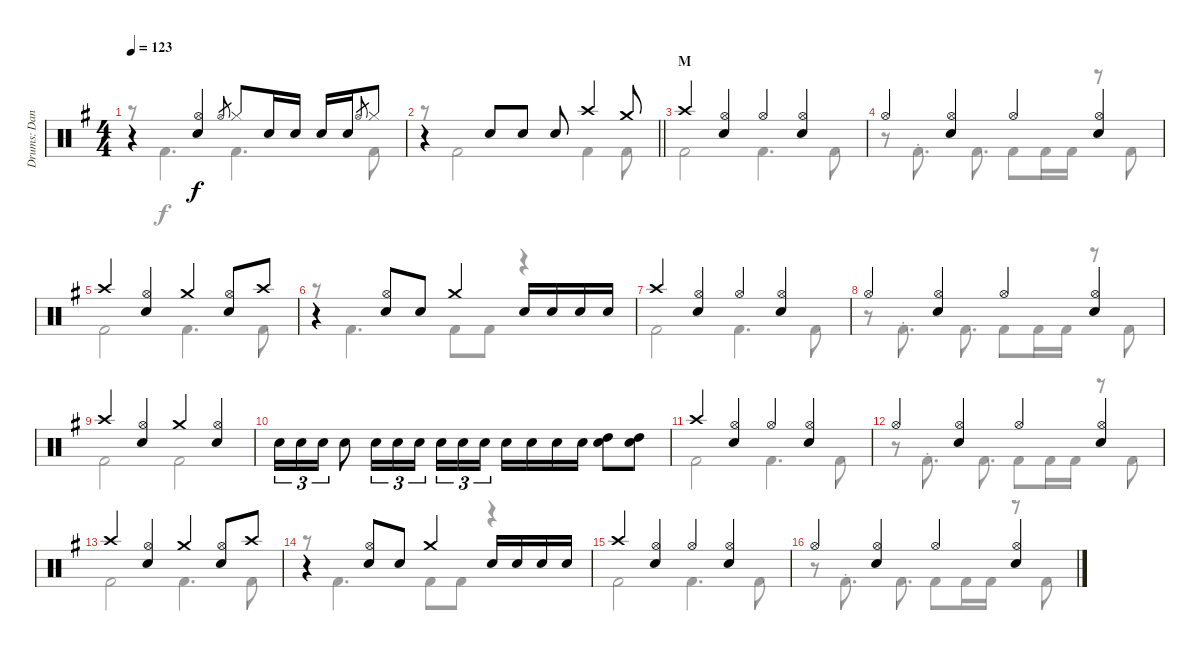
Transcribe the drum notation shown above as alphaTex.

\track ("Drums: Dana" "Drums: Dan") {instrument percussion}
\staff {score}
\articulation defaults
\voice
\ts (4 4)
\tempo 123
\clef neutral
\ks g
r.4{dy f} ("Hi-Hat (open)" "Snare (hit) 2").4 "Hi-Hat (open)".8{gr} "Hi-Hat (closed)".8 "Snare (hit) 2".16 "Snare (hit) 2".16 "Snare (hit) 2".16 "Snare (hit) 2".16 "Hi-Hat (open)".8{gr} "Hi-Hat (closed)".8 |
\barLineRight lightlight
r.4 "Snare (hit) 2".8 "Snare (hit) 2".8 "Snare (hit) 2".8 "Crash high (hit)".4 "Crash medium (hit)".8 |
\section ("" "M")
"Crash high (hit)".4 ("Hi-Hat (open)" "Snare (hit) 2").4 "Hi-Hat (open)".4 ("Hi-Hat (open)" "Snare (hit) 2").4 |
"Hi-Hat (open)".4 ("Hi-Hat (open)" "Snare (hit) 2").4 "Hi-Hat (open)".4 ("Hi-Hat (open)" "Snare (hit) 2").4 |
"Crash high (hit)".4 ("Hi-Hat (open)" "Snare (hit) 2").4 "Crash medium (hit)".4 ("Hi-Hat (open)" "Snare (hit) 2").8 "Crash high (hit)".8 |
r.4 ("Hi-Hat (open)" "Snare (hit) 2").8 "Snare (hit) 2".8 "Crash medium (hit)".4 "Snare (hit) 2".16 "Snare (hit) 2".16 "Snare (hit) 2".16 "Snare (hit) 2".16 |
"Crash high (hit)".4 ("Hi-Hat (open)" "Snare (hit) 2").4 "Hi-Hat (open)".4 ("Hi-Hat (open)" "Snare (hit) 2").4 |
"Hi-Hat (open)".4 ("Hi-Hat (open)" "Snare (hit) 2").4 "Hi-Hat (open)".4 ("Hi-Hat (open)" "Snare (hit) 2").4 |
"Crash high (hit)".4 ("Hi-Hat (open)" "Snare (hit) 2").4 "Crash medium (hit)".4 ("Hi-Hat (open)" "Snare (hit) 2").4 |
"Snare (hit) 2".16{tu (3 2)} "Snare (hit) 2".16{tu (3 2)} "Snare (hit) 2".16{tu (3 2)} "Snare (hit) 2".8 "Snare (hit) 2".16{tu (3 2)} "Snare (hit) 2".16{tu (3 2)} "Snare (hit) 2".16{tu (3 2) beam splitsecondary} "Snare (hit) 2".16{tu (3 2)} "Snare (hit) 2".16{tu (3 2)} "Snare (hit) 2".16{tu (3 2)} "Snare (hit) 2".16 "Snare (hit) 2".16 "Snare (hit) 2".16 "Snare (hit) 2".16 ("Snare (hit) 2" "High Tom (hit)").8 ("Snare (hit) 2" "High Tom (hit)").8 |
"Crash high (hit)".4 ("Hi-Hat (open)" "Snare (hit) 2").4 "Hi-Hat (open)".4 ("Hi-Hat (open)" "Snare (hit) 2").4 |
"Hi-Hat (open)".4 ("Hi-Hat (open)" "Snare (hit) 2").4 "Hi-Hat (open)".4 ("Hi-Hat (open)" "Snare (hit) 2").4 |
"Crash high (hit)".4 ("Hi-Hat (open)" "Snare (hit) 2").4 "Crash medium (hit)".4 ("Hi-Hat (open)" "Snare (hit) 2").8 "Crash high (hit)".8 |
r.4 ("Hi-Hat (open)" "Snare (hit) 2").8 "Snare (hit) 2".8 "Crash medium (hit)".4 "Snare (hit) 2".16 "Snare (hit) 2".16 "Snare (hit) 2".16 "Snare (hit) 2".16 |
"Crash high (hit)".4 ("Hi-Hat (open)" "Snare (hit) 2").4 "Hi-Hat (open)".4 ("Hi-Hat (open)" "Snare (hit) 2").4 |
"Hi-Hat (open)".4 ("Hi-Hat (open)" "Snare (hit) 2").4 "Hi-Hat (open)".4 ("Hi-Hat (open)" "Snare (hit) 2").4
\voice
\clef neutral
\ottava regular
\simile none
\ks g
r.8{dy f} "Kick (hit) 2".4{d} "Kick (hit) 2".4{d} "Kick (hit) 2".8 |
\barLineRight lightlight
r.8 "Kick (hit) 2".2 "Kick (hit) 2".4 "Kick (hit) 2".8 |
"Kick (hit) 2".2 "Kick (hit) 2".4{d} "Kick (hit) 2".8 |
r.8 "Kick (hit) 2"{st}.8{d} "Kick (hit) 2".8{d} "Kick (hit) 2".8 "Kick (hit) 2".16 "Kick (hit) 2".16 r.8 "Kick (hit) 2".8 |
"Kick (hit) 2".2 "Kick (hit) 2".4{d} "Kick (hit) 2".8 |
r.8 "Kick (hit) 2".4{d} "Kick (hit) 2".8 "Kick (hit) 2".8 r.4 |
"Kick (hit) 2".2 "Kick (hit) 2".4{d} "Kick (hit) 2".8 |
r.8 "Kick (hit) 2"{st}.8{d} "Kick (hit) 2".8{d} "Kick (hit) 2".8 "Kick (hit) 2".16 "Kick (hit) 2".16 r.8 "Kick (hit) 2".8 |
"Kick (hit) 2".2 "Kick (hit) 2".2 |
|
"Kick (hit) 2".2 "Kick (hit) 2".4{d} "Kick (hit) 2".8 |
r.8 "Kick (hit) 2"{st}.8{d} "Kick (hit) 2".8{d} "Kick (hit) 2".8 "Kick (hit) 2".16 "Kick (hit) 2".16 r.8 "Kick (hit) 2".8 |
"Kick (hit) 2".2 "Kick (hit) 2".4{d} "Kick (hit) 2".8 |
r.8 "Kick (hit) 2".4{d} "Kick (hit) 2".8 "Kick (hit) 2".8 r.4 |
"Kick (hit) 2".2 "Kick (hit) 2".4{d} "Kick (hit) 2".8 |
r.8 "Kick (hit) 2"{st}.8{d} "Kick (hit) 2".8{d} "Kick (hit) 2".8 "Kick (hit) 2".16 "Kick (hit) 2".16 r.8 "Kick (hit) 2".8
